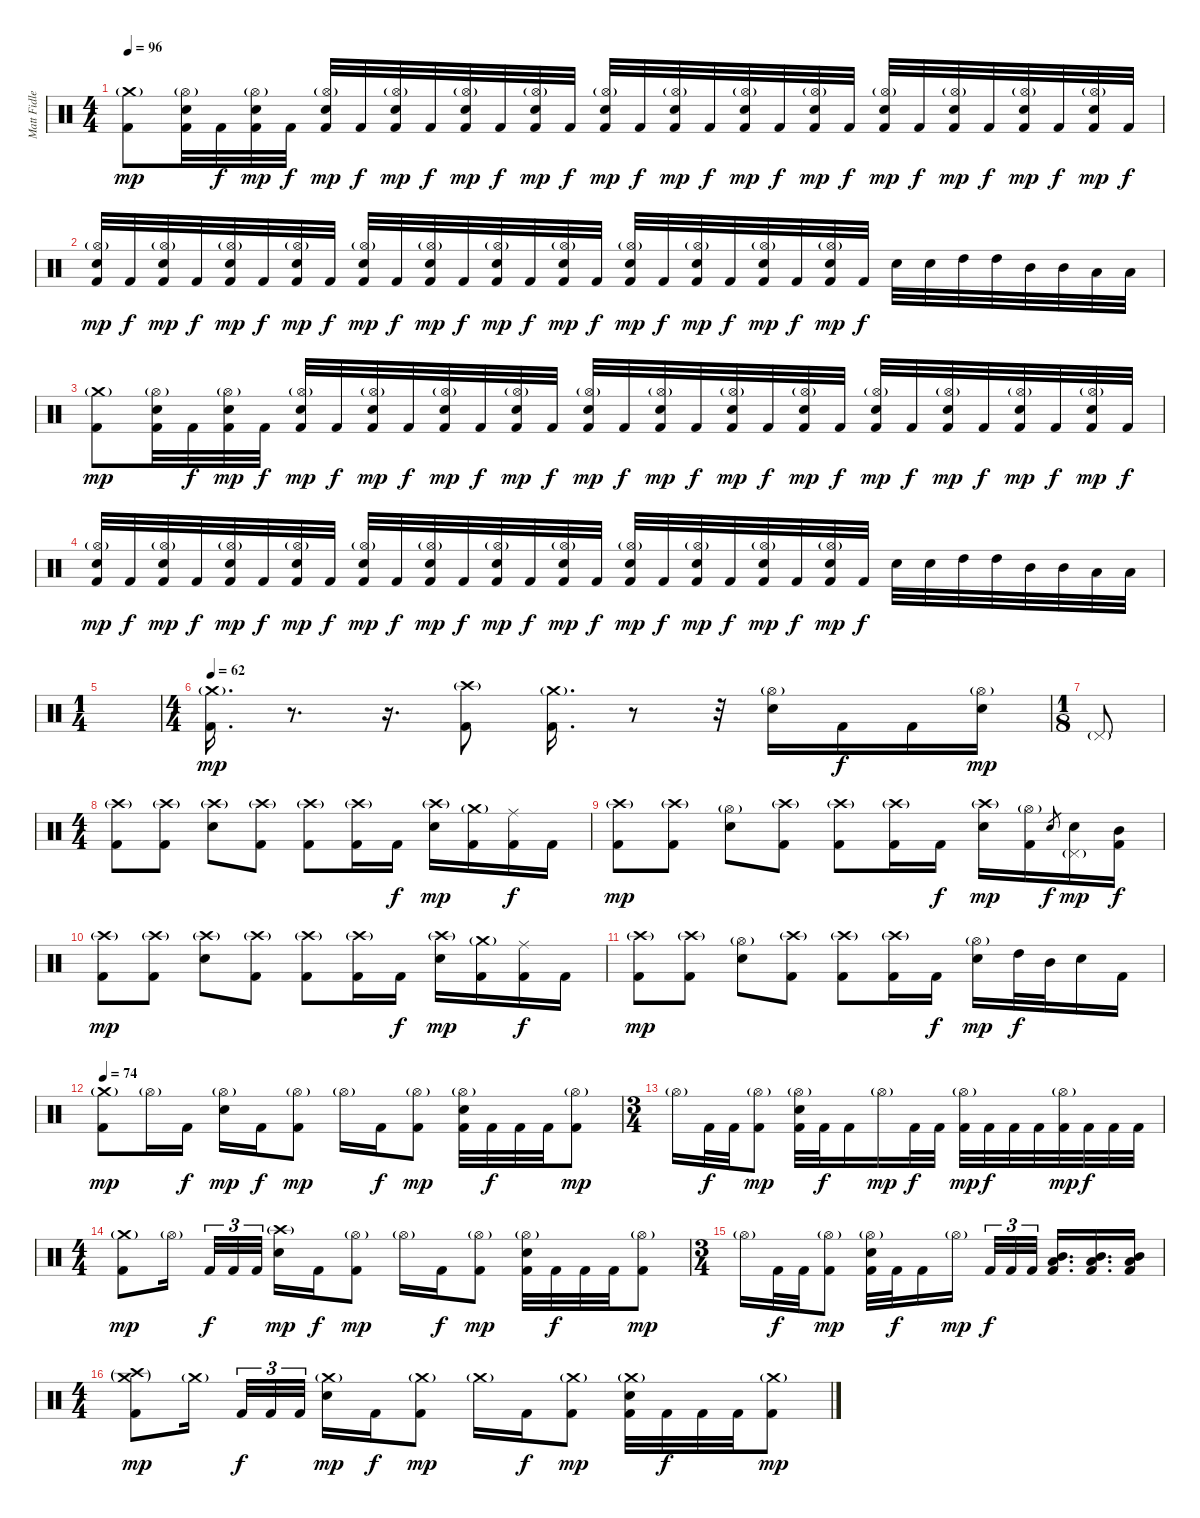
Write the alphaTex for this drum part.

\track ("Matt Fidler---Drums" "Matt Fidle") {instrument percussion}
\staff {score}
\articulation defaults
\ts (4 4)
\tempo 96
\clef neutral
\ks c
("Crash medium (hit)"{g} "Kick (hit) 2").8{dy mp} ("Hi-Hat (open)"{g} "Electric Snare (hit)" "Kick (hit) 2").32 "Kick (hit) 2".32{dy f} ("Hi-Hat (open)"{g} "Electric Snare (hit)" "Kick (hit) 2").32{dy mp} "Kick (hit) 2".32{dy f} ("Hi-Hat (open)"{g} "Electric Snare (hit)" "Kick (hit) 2").32{dy mp} "Kick (hit) 2".32{dy f} ("Hi-Hat (open)"{g} "Electric Snare (hit)" "Kick (hit) 2").32{dy mp} "Kick (hit) 2".32{dy f} ("Hi-Hat (open)"{g} "Electric Snare (hit)" "Kick (hit) 2").32{dy mp} "Kick (hit) 2".32{dy f} ("Hi-Hat (open)"{g} "Electric Snare (hit)" "Kick (hit) 2").32{dy mp} "Kick (hit) 2".32{dy f} ("Hi-Hat (open)"{g} "Electric Snare (hit)" "Kick (hit) 2").32{dy mp} "Kick (hit) 2".32{dy f} ("Hi-Hat (open)"{g} "Electric Snare (hit)" "Kick (hit) 2").32{dy mp} "Kick (hit) 2".32{dy f} ("Hi-Hat (open)"{g} "Electric Snare (hit)" "Kick (hit) 2").32{dy mp} "Kick (hit) 2".32{dy f} ("Hi-Hat (open)"{g} "Electric Snare (hit)" "Kick (hit) 2").32{dy mp} "Kick (hit) 2".32{dy f} ("Hi-Hat (open)"{g} "Electric Snare (hit)" "Kick (hit) 2").32{dy mp} "Kick (hit) 2".32{dy f} ("Hi-Hat (open)"{g} "Electric Snare (hit)" "Kick (hit) 2").32{dy mp} "Kick (hit) 2".32{dy f} ("Hi-Hat (open)"{g} "Electric Snare (hit)" "Kick (hit) 2").32{dy mp} "Kick (hit) 2".32{dy f} ("Hi-Hat (open)"{g} "Electric Snare (hit)" "Kick (hit) 2").32{dy mp} "Kick (hit) 2".32{dy f} |
("Hi-Hat (open)"{g} "Electric Snare (hit)" "Kick (hit) 2").32{dy mp} "Kick (hit) 2".32{dy f} ("Hi-Hat (open)"{g} "Electric Snare (hit)" "Kick (hit) 2").32{dy mp} "Kick (hit) 2".32{dy f} ("Hi-Hat (open)"{g} "Electric Snare (hit)" "Kick (hit) 2").32{dy mp} "Kick (hit) 2".32{dy f} ("Hi-Hat (open)"{g} "Electric Snare (hit)" "Kick (hit) 2").32{dy mp} "Kick (hit) 2".32{dy f} ("Hi-Hat (open)"{g} "Electric Snare (hit)" "Kick (hit) 2").32{dy mp} "Kick (hit) 2".32{dy f} ("Hi-Hat (open)"{g} "Electric Snare (hit)" "Kick (hit) 2").32{dy mp} "Kick (hit) 2".32{dy f} ("Hi-Hat (open)"{g} "Electric Snare (hit)" "Kick (hit) 2").32{dy mp} "Kick (hit) 2".32{dy f} ("Hi-Hat (open)"{g} "Electric Snare (hit)" "Kick (hit) 2").32{dy mp} "Kick (hit) 2".32{dy f} ("Hi-Hat (open)"{g} "Electric Snare (hit)" "Kick (hit) 2").32{dy mp} "Kick (hit) 2".32{dy f} ("Hi-Hat (open)"{g} "Electric Snare (hit)" "Kick (hit) 2").32{dy mp} "Kick (hit) 2".32{dy f} ("Hi-Hat (open)"{g} "Electric Snare (hit)" "Kick (hit) 2").32{dy mp} "Kick (hit) 2".32{dy f} ("Hi-Hat (open)"{g} "Electric Snare (hit)" "Kick (hit) 2").32{dy mp} "Kick (hit) 2".32{dy f} "Electric Snare (hit)".32 "Electric Snare (hit)".32 "High Tom (hit)".32 "High Tom (hit)".32 "Mid Tom (hit)".32 "Mid Tom (hit)".32 "Low Tom (hit)".32 "Low Tom (hit)".32 |
("Crash medium (hit)"{g} "Kick (hit) 2").8{dy mp} ("Hi-Hat (open)"{g} "Electric Snare (hit)" "Kick (hit) 2").32 "Kick (hit) 2".32{dy f} ("Hi-Hat (open)"{g} "Electric Snare (hit)" "Kick (hit) 2").32{dy mp} "Kick (hit) 2".32{dy f} ("Hi-Hat (open)"{g} "Electric Snare (hit)" "Kick (hit) 2").32{dy mp} "Kick (hit) 2".32{dy f} ("Hi-Hat (open)"{g} "Electric Snare (hit)" "Kick (hit) 2").32{dy mp} "Kick (hit) 2".32{dy f} ("Hi-Hat (open)"{g} "Electric Snare (hit)" "Kick (hit) 2").32{dy mp} "Kick (hit) 2".32{dy f} ("Hi-Hat (open)"{g} "Electric Snare (hit)" "Kick (hit) 2").32{dy mp} "Kick (hit) 2".32{dy f} ("Hi-Hat (open)"{g} "Electric Snare (hit)" "Kick (hit) 2").32{dy mp} "Kick (hit) 2".32{dy f} ("Hi-Hat (open)"{g} "Electric Snare (hit)" "Kick (hit) 2").32{dy mp} "Kick (hit) 2".32{dy f} ("Hi-Hat (open)"{g} "Electric Snare (hit)" "Kick (hit) 2").32{dy mp} "Kick (hit) 2".32{dy f} ("Hi-Hat (open)"{g} "Electric Snare (hit)" "Kick (hit) 2").32{dy mp} "Kick (hit) 2".32{dy f} ("Hi-Hat (open)"{g} "Electric Snare (hit)" "Kick (hit) 2").32{dy mp} "Kick (hit) 2".32{dy f} ("Hi-Hat (open)"{g} "Electric Snare (hit)" "Kick (hit) 2").32{dy mp} "Kick (hit) 2".32{dy f} ("Hi-Hat (open)"{g} "Electric Snare (hit)" "Kick (hit) 2").32{dy mp} "Kick (hit) 2".32{dy f} ("Hi-Hat (open)"{g} "Electric Snare (hit)" "Kick (hit) 2").32{dy mp} "Kick (hit) 2".32{dy f} |
("Hi-Hat (open)"{g} "Electric Snare (hit)" "Kick (hit) 2").32{dy mp} "Kick (hit) 2".32{dy f} ("Hi-Hat (open)"{g} "Electric Snare (hit)" "Kick (hit) 2").32{dy mp} "Kick (hit) 2".32{dy f} ("Hi-Hat (open)"{g} "Electric Snare (hit)" "Kick (hit) 2").32{dy mp} "Kick (hit) 2".32{dy f} ("Hi-Hat (open)"{g} "Electric Snare (hit)" "Kick (hit) 2").32{dy mp} "Kick (hit) 2".32{dy f} ("Hi-Hat (open)"{g} "Electric Snare (hit)" "Kick (hit) 2").32{dy mp} "Kick (hit) 2".32{dy f} ("Hi-Hat (open)"{g} "Electric Snare (hit)" "Kick (hit) 2").32{dy mp} "Kick (hit) 2".32{dy f} ("Hi-Hat (open)"{g} "Electric Snare (hit)" "Kick (hit) 2").32{dy mp} "Kick (hit) 2".32{dy f} ("Hi-Hat (open)"{g} "Electric Snare (hit)" "Kick (hit) 2").32{dy mp} "Kick (hit) 2".32{dy f} ("Hi-Hat (open)"{g} "Electric Snare (hit)" "Kick (hit) 2").32{dy mp} "Kick (hit) 2".32{dy f} ("Hi-Hat (open)"{g} "Electric Snare (hit)" "Kick (hit) 2").32{dy mp} "Kick (hit) 2".32{dy f} ("Hi-Hat (open)"{g} "Electric Snare (hit)" "Kick (hit) 2").32{dy mp} "Kick (hit) 2".32{dy f} ("Hi-Hat (open)"{g} "Electric Snare (hit)" "Kick (hit) 2").32{dy mp} "Kick (hit) 2".32{dy f} "Electric Snare (hit)".32 "Electric Snare (hit)".32 "High Tom (hit)".32 "High Tom (hit)".32 "Mid Tom (hit)".32 "Mid Tom (hit)".32 "Low Tom (hit)".32 "Low Tom (hit)".32 |
\ts (1 4)
|
\ts (4 4)
\tempo 62
("Crash medium (hit)"{g} "Kick (hit) 2").16{d dy mp} r.8{d volume 0} r.16{d} ("Crash high (hit)"{g} "Kick (hit) 2").8{volume 16} ("Crash medium (hit)"{g} "Kick (hit) 2").16{d} r.8{volume 0} r.32{volume 16} ("Hi-Hat (open)"{g} "Electric Snare (hit)").16 "Kick (hit) 2".16{dy f} "Kick (hit) 2".16 ("Hi-Hat (open)"{g} "Electric Snare (hit)").16{dy mp} |
\ts (1 8)
"Pedal Hi-Hat (hit)"{g}.8{volume 7} |
\ts (4 4)
("Crash high (hit)"{g} "Kick (hit) 2").8{volume 16} ("Crash high (hit)"{g} "Kick (hit) 2").8 ("Crash high (hit)"{g} "Electric Snare (hit)").8 ("Crash high (hit)"{g} "Kick (hit) 2").8 ("Crash high (hit)"{g} "Kick (hit) 2").8 ("Crash high (hit)"{g} "Kick (hit) 2").16 "Kick (hit) 2".16{dy f} ("Crash high (hit)"{g} "Electric Snare (hit)").16{dy mp} ("Crash medium (hit)"{g} "Kick (hit) 2").16 ("Ride (middle)" "Kick (hit) 2").16{dy f} "Kick (hit) 2".16 |
("Crash high (hit)"{g} "Kick (hit) 2").8{dy mp} ("Crash high (hit)"{g} "Kick (hit) 2").8 ("Hi-Hat (open)"{g} "Electric Snare (hit)").8 ("Crash high (hit)"{g} "Kick (hit) 2").8 ("Crash high (hit)"{g} "Kick (hit) 2").8 ("Crash high (hit)"{g} "Kick (hit) 2").16 "Kick (hit) 2".16{dy f} ("Crash high (hit)"{g} "Electric Snare (hit)").16{dy mp} ("Hi-Hat (open)"{g} "Kick (hit) 2").16 "Electric Snare (hit)".8{gr dy f} ("Pedal Hi-Hat (hit)"{g} "Electric Snare (hit)").16{dy mp} ("Mid Tom (hit)" "Kick (hit) 2").16{dy f} |
("Crash high (hit)"{g} "Kick (hit) 2").8{dy mp} ("Crash high (hit)"{g} "Kick (hit) 2").8 ("Crash high (hit)"{g} "Electric Snare (hit)").8 ("Crash high (hit)"{g} "Kick (hit) 2").8 ("Crash high (hit)"{g} "Kick (hit) 2").8 ("Crash high (hit)"{g} "Kick (hit) 2").16 "Kick (hit) 2".16{dy f} ("Crash high (hit)"{g} "Electric Snare (hit)").16{dy mp} ("Crash medium (hit)"{g} "Kick (hit) 2").16 ("Ride (middle)" "Kick (hit) 2").16{dy f} "Kick (hit) 2".16 |
("Crash high (hit)"{g} "Kick (hit) 2").8{dy mp} ("Crash high (hit)"{g} "Kick (hit) 2").8 ("Hi-Hat (open)"{g} "Electric Snare (hit)").8 ("Crash high (hit)"{g} "Kick (hit) 2").8 ("Crash high (hit)"{g} "Kick (hit) 2").8 ("Crash high (hit)"{g} "Kick (hit) 2").16 "Kick (hit) 2".16{dy f} ("Hi-Hat (open)"{g} "Electric Snare (hit)").16{dy mp} "High Tom (hit)".32{dy f} "Mid Tom (hit)".32 "Electric Snare (hit)".16 "Kick (hit) 2".16 |
\tempo 74
("Crash medium (hit)"{g} "Kick (hit) 2").8{dy mp} "Hi-Hat (open)"{g}.16 "Kick (hit) 2".16{dy f} ("Hi-Hat (open)"{g} "Electric Snare (hit)").16{dy mp} "Kick (hit) 2".16{dy f} ("Hi-Hat (open)"{g} "Kick (hit) 2").8{dy mp} "Hi-Hat (open)"{g}.16 "Kick (hit) 2".16{dy f} ("Hi-Hat (open)"{g} "Kick (hit) 2").8{dy mp} ("Hi-Hat (open)"{g} "Electric Snare (hit)" "Kick (hit) 2").32 "Kick (hit) 2".32{dy f} "Kick (hit) 2".32 "Kick (hit) 2".32 ("Hi-Hat (open)"{g} "Kick (hit) 2").8{dy mp} |
\ts (3 4)
"Hi-Hat (open)"{g}.16 "Kick (hit) 2".32{dy f} "Kick (hit) 2".32 ("Hi-Hat (open)"{g} "Kick (hit) 2").8{dy mp} ("Hi-Hat (open)"{g} "Electric Snare (hit)" "Kick (hit) 2").32 "Kick (hit) 2".32{dy f} "Kick (hit) 2".16 "Hi-Hat (open)"{g}.16{dy mp} "Kick (hit) 2".32{dy f} "Kick (hit) 2".32 ("Hi-Hat (open)"{g} "Kick (hit) 2").32{dy mp} "Kick (hit) 2".32{dy f} "Kick (hit) 2".32 "Kick (hit) 2".32 ("Hi-Hat (open)"{g} "Kick (hit) 2").32{dy mp} "Kick (hit) 2".32{dy f} "Kick (hit) 2".32 "Kick (hit) 2".32 |
\ts (4 4)
("Crash medium (hit)"{g} "Kick (hit) 2").8{dy mp} "Hi-Hat (open)"{g}.16{beam splitsecondary} "Kick (hit) 2".32{tu (3 2) dy f} "Kick (hit) 2".32{tu (3 2)} "Kick (hit) 2".32{tu (3 2)} ("Crash high (hit)"{g} "Electric Snare (hit)").16{dy mp} "Kick (hit) 2".16{dy f} ("Hi-Hat (open)"{g} "Kick (hit) 2").8{dy mp} "Hi-Hat (open)"{g}.16 "Kick (hit) 2".16{dy f} ("Hi-Hat (open)"{g} "Kick (hit) 2").8{dy mp} ("Hi-Hat (open)"{g} "Electric Snare (hit)" "Kick (hit) 2").32 "Kick (hit) 2".32{dy f} "Kick (hit) 2".32 "Kick (hit) 2".32 ("Hi-Hat (open)"{g} "Kick (hit) 2").8{dy mp} |
\ts (3 4)
"Hi-Hat (open)"{g}.16 "Kick (hit) 2".32{dy f} "Kick (hit) 2".32 ("Hi-Hat (open)"{g} "Kick (hit) 2").8{dy mp} ("Hi-Hat (open)"{g} "Electric Snare (hit)" "Kick (hit) 2").32 "Kick (hit) 2".32{dy f} "Kick (hit) 2".16 "Hi-Hat (open)"{g}.16{dy mp beam splitsecondary} "Kick (hit) 2".32{tu (3 2) dy f} "Kick (hit) 2".32{tu (3 2)} "Kick (hit) 2".32{tu (3 2)} ("Mid Tom (hit)" "Low Tom (hit)" "Kick (hit) 2").16{d} ("Mid Tom (hit)" "Low Tom (hit)" "Kick (hit) 2").16{d} ("Mid Tom (hit)" "Low Tom (hit)" "Kick (hit) 2").16 |
\ts (4 4)
("Crash high (hit)"{g} "Crash medium (hit)"{g} "Kick (hit) 2").8{dy mp} "Crash medium (hit)"{g}.16{beam splitsecondary} "Kick (hit) 2".32{tu (3 2) dy f} "Kick (hit) 2".32{tu (3 2)} "Kick (hit) 2".32{tu (3 2)} ("Crash medium (hit)"{g} "Electric Snare (hit)").16{dy mp} "Kick (hit) 2".16{dy f} ("Crash medium (hit)"{g} "Kick (hit) 2").8{dy mp} "Crash medium (hit)"{g}.16 "Kick (hit) 2".16{dy f} ("Crash medium (hit)"{g} "Kick (hit) 2").8{dy mp} ("Crash medium (hit)"{g} "Electric Snare (hit)" "Kick (hit) 2").32 "Kick (hit) 2".32{dy f} "Kick (hit) 2".32 "Kick (hit) 2".32 ("Crash medium (hit)"{g} "Kick (hit) 2").8{dy mp}
